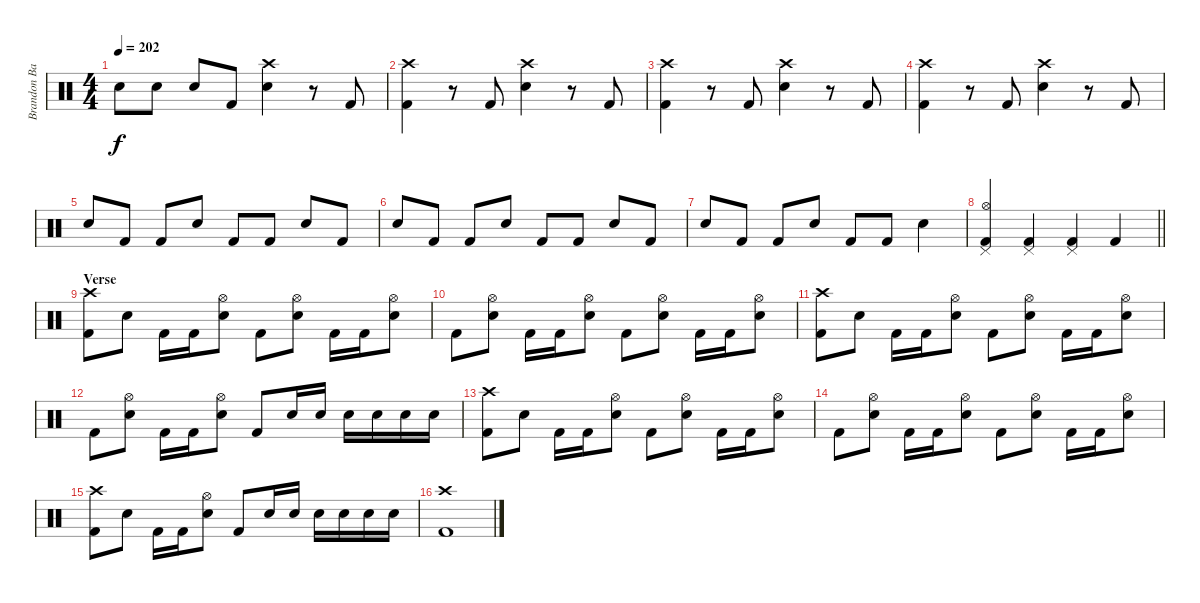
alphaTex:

\track ("Brandon Barnes - Drums" "Brandon Ba") {instrument percussion}
\staff {score}
\articulation defaults
\ts (4 4)
\tempo 202
\clef neutral
\ks c "Snare (hit) 2".8{dy f} "Snare (hit) 2".8 "Snare (hit) 2".8 "Kick (hit) 2".8
("Snare (hit) 2" "Crash high (hit)").4 r.8 "Kick (hit) 2".8 |
("Kick (hit) 2" "Crash high (hit)").4 r.8 "Kick (hit) 2".8 ("Snare (hit) 2" "Crash high (hit)").4 r.8 "Kick (hit) 2".8 |
("Kick (hit) 2" "Crash high (hit)").4 r.8 "Kick (hit) 2".8 ("Snare (hit) 2" "Crash high (hit)").4 r.8 "Kick (hit) 2".8 |
("Kick (hit) 2" "Crash high (hit)").4 r.8 "Kick (hit) 2".8 ("Snare (hit) 2" "Crash high (hit)").4 r.8 "Kick (hit) 2".8 |
"Snare (hit) 2".8 "Kick (hit) 2".8 "Kick (hit) 2".8 "Snare (hit) 2".8 "Kick (hit) 2".8 "Kick (hit) 2".8 "Snare (hit) 2".8 "Kick (hit) 2".8 |
"Snare (hit) 2".8 "Kick (hit) 2".8 "Kick (hit) 2".8 "Snare (hit) 2".8 "Kick (hit) 2".8 "Kick (hit) 2".8 "Snare (hit) 2".8 "Kick (hit) 2".8 |
"Snare (hit) 2".8 "Kick (hit) 2".8 "Kick (hit) 2".8 "Snare (hit) 2".8 "Kick (hit) 2".8 "Kick (hit) 2".8 "Snare (hit) 2".4 |
\barLineRight lightlight
("Hi-Hat (open)" "Kick (hit) 2" "Pedal Hi-Hat (hit)").4 ("Kick (hit) 2" "Pedal Hi-Hat (hit)").4 ("Kick (hit) 2" "Pedal Hi-Hat (hit)").4 "Kick (hit) 2".4 |
\section ("" "Verse")
("Crash high (hit)" "Kick (hit) 2").8 "Snare (hit) 2".8 "Kick (hit) 2".16 "Kick (hit) 2".16 ("Snare (hit) 2" "Hi-Hat (open)").8 "Kick (hit) 2".8 ("Snare (hit) 2" "Hi-Hat (open)").8 "Kick (hit) 2".16 "Kick (hit) 2".16 ("Snare (hit) 2" "Hi-Hat (open)").8 |
"Kick (hit) 2".8 ("Snare (hit) 2" "Hi-Hat (open)").8 "Kick (hit) 2".16 "Kick (hit) 2".16 ("Snare (hit) 2" "Hi-Hat (open)").8 "Kick (hit) 2".8 ("Snare (hit) 2" "Hi-Hat (open)").8 "Kick (hit) 2".16 "Kick (hit) 2".16 ("Snare (hit) 2" "Hi-Hat (open)").8 |
("Kick (hit) 2" "Crash high (hit)").8 "Snare (hit) 2".8 "Kick (hit) 2".16 "Kick (hit) 2".16 ("Snare (hit) 2" "Hi-Hat (open)").8 "Kick (hit) 2".8 ("Snare (hit) 2" "Hi-Hat (open)").8 "Kick (hit) 2".16 "Kick (hit) 2".16 ("Snare (hit) 2" "Hi-Hat (open)").8 |
"Kick (hit) 2".8 ("Snare (hit) 2" "Hi-Hat (open)").8 "Kick (hit) 2".16 "Kick (hit) 2".16 ("Snare (hit) 2" "Hi-Hat (open)").8 "Kick (hit) 2".8 "Snare (hit) 2".16 "Snare (hit) 2".16 "Snare (hit) 2".16 "Snare (hit) 2".16 "Snare (hit) 2".16 "Snare (hit) 2".16 |
("Kick (hit) 2" "Crash high (hit)").8 "Snare (hit) 2".8 "Kick (hit) 2".16 "Kick (hit) 2".16 ("Snare (hit) 2" "Hi-Hat (open)").8 "Kick (hit) 2".8 ("Snare (hit) 2" "Hi-Hat (open)").8 "Kick (hit) 2".16 "Kick (hit) 2".16 ("Snare (hit) 2" "Hi-Hat (open)").8 |
"Kick (hit) 2".8 ("Snare (hit) 2" "Hi-Hat (open)").8 "Kick (hit) 2".16 "Kick (hit) 2".16 ("Snare (hit) 2" "Hi-Hat (open)").8 "Kick (hit) 2".8 ("Snare (hit) 2" "Hi-Hat (open)").8 "Kick (hit) 2".16 "Kick (hit) 2".16 ("Snare (hit) 2" "Hi-Hat (open)").8 |
("Kick (hit) 2" "Crash high (hit)").8 "Snare (hit) 2".8 "Kick (hit) 2".16 "Kick (hit) 2".16 ("Snare (hit) 2" "Hi-Hat (open)").8 "Kick (hit) 2".8 "Snare (hit) 2".16 "Snare (hit) 2".16 "Snare (hit) 2".16 "Snare (hit) 2".16 "Snare (hit) 2".16 "Snare (hit) 2".16 |
("Crash high (hit)" "Kick (hit) 2").1
